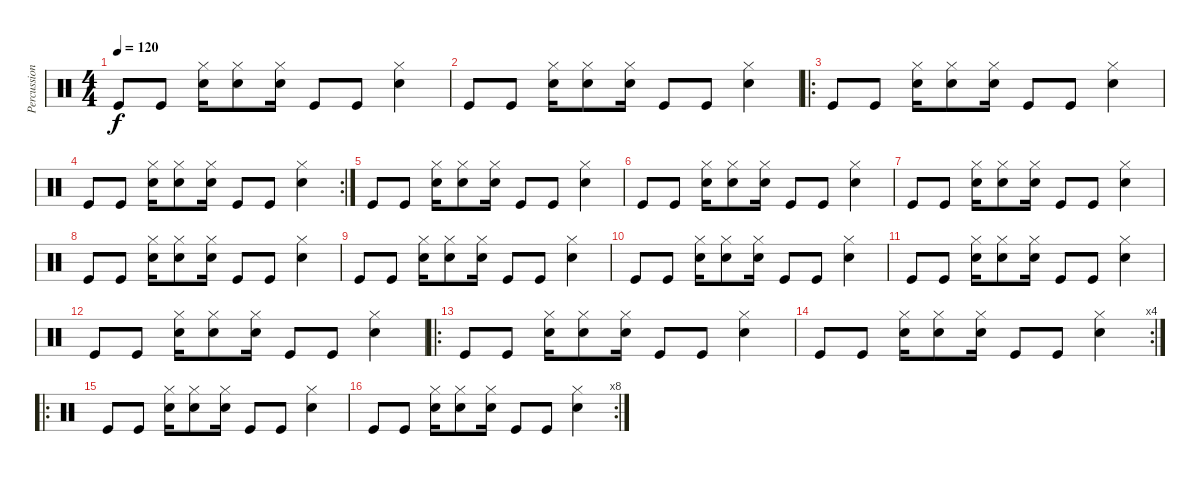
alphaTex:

\track ("Percussions" "Percussion") {instrument percussion}
\staff {score}
\articulation defaults
\ts (4 4)
\tempo 120
\clef neutral
\ks c "Kick (hit)".8{dy f} "Kick (hit)".8
("Electric Snare (hit)" "Hi-Hat (closed)").16 ("Electric Snare (hit)" "Hi-Hat (closed)").8 ("Electric Snare (hit)" "Hi-Hat (closed)").16 "Kick (hit)".8 "Kick (hit)".8 ("Electric Snare (hit)" "Hi-Hat (closed)").4 |
"Kick (hit)".8 "Kick (hit)".8 ("Electric Snare (hit)" "Hi-Hat (closed)").16 ("Electric Snare (hit)" "Hi-Hat (closed)").8 ("Electric Snare (hit)" "Hi-Hat (closed)").16 "Kick (hit)".8 "Kick (hit)".8 ("Electric Snare (hit)" "Hi-Hat (closed)").4 |
\ro "Kick (hit)".8 "Kick (hit)".8
("Electric Snare (hit)" "Hi-Hat (closed)").16 ("Electric Snare (hit)" "Hi-Hat (closed)").8 ("Electric Snare (hit)" "Hi-Hat (closed)").16 "Kick (hit)".8 "Kick (hit)".8 ("Electric Snare (hit)" "Hi-Hat (closed)").4 |
\rc 2 "Kick (hit)".8 "Kick (hit)".8
("Electric Snare (hit)" "Hi-Hat (closed)").16 ("Electric Snare (hit)" "Hi-Hat (closed)").8 ("Electric Snare (hit)" "Hi-Hat (closed)").16 "Kick (hit)".8 "Kick (hit)".8 ("Electric Snare (hit)" "Hi-Hat (closed)").4 |
"Kick (hit)".8 "Kick (hit)".8 ("Electric Snare (hit)" "Hi-Hat (closed)").16 ("Electric Snare (hit)" "Hi-Hat (closed)").8 ("Electric Snare (hit)" "Hi-Hat (closed)").16 "Kick (hit)".8 "Kick (hit)".8 ("Electric Snare (hit)" "Hi-Hat (closed)").4 |
"Kick (hit)".8 "Kick (hit)".8 ("Electric Snare (hit)" "Hi-Hat (closed)").16 ("Electric Snare (hit)" "Hi-Hat (closed)").8 ("Electric Snare (hit)" "Hi-Hat (closed)").16 "Kick (hit)".8 "Kick (hit)".8 ("Electric Snare (hit)" "Hi-Hat (closed)").4 |
"Kick (hit)".8 "Kick (hit)".8 ("Electric Snare (hit)" "Hi-Hat (closed)").16 ("Electric Snare (hit)" "Hi-Hat (closed)").8 ("Electric Snare (hit)" "Hi-Hat (closed)").16 "Kick (hit)".8 "Kick (hit)".8 ("Electric Snare (hit)" "Hi-Hat (closed)").4 |
"Kick (hit)".8 "Kick (hit)".8 ("Electric Snare (hit)" "Hi-Hat (closed)").16 ("Electric Snare (hit)" "Hi-Hat (closed)").8 ("Electric Snare (hit)" "Hi-Hat (closed)").16 "Kick (hit)".8 "Kick (hit)".8 ("Electric Snare (hit)" "Hi-Hat (closed)").4 |
"Kick (hit)".8 "Kick (hit)".8 ("Electric Snare (hit)" "Hi-Hat (closed)").16 ("Electric Snare (hit)" "Hi-Hat (closed)").8 ("Electric Snare (hit)" "Hi-Hat (closed)").16 "Kick (hit)".8 "Kick (hit)".8 ("Electric Snare (hit)" "Hi-Hat (closed)").4 |
"Kick (hit)".8 "Kick (hit)".8 ("Electric Snare (hit)" "Hi-Hat (closed)").16 ("Electric Snare (hit)" "Hi-Hat (closed)").8 ("Electric Snare (hit)" "Hi-Hat (closed)").16 "Kick (hit)".8 "Kick (hit)".8 ("Electric Snare (hit)" "Hi-Hat (closed)").4 |
"Kick (hit)".8 "Kick (hit)".8 ("Electric Snare (hit)" "Hi-Hat (closed)").16 ("Electric Snare (hit)" "Hi-Hat (closed)").8 ("Electric Snare (hit)" "Hi-Hat (closed)").16 "Kick (hit)".8 "Kick (hit)".8 ("Electric Snare (hit)" "Hi-Hat (closed)").4 |
"Kick (hit)".8 "Kick (hit)".8 ("Electric Snare (hit)" "Hi-Hat (closed)").16 ("Electric Snare (hit)" "Hi-Hat (closed)").8 ("Electric Snare (hit)" "Hi-Hat (closed)").16 "Kick (hit)".8 "Kick (hit)".8 ("Electric Snare (hit)" "Hi-Hat (closed)").4 |
\ro "Kick (hit)".8 "Kick (hit)".8
("Electric Snare (hit)" "Hi-Hat (closed)").16 ("Electric Snare (hit)" "Hi-Hat (closed)").8 ("Electric Snare (hit)" "Hi-Hat (closed)").16 "Kick (hit)".8 "Kick (hit)".8 ("Electric Snare (hit)" "Hi-Hat (closed)").4 |
\rc 4 "Kick (hit)".8 "Kick (hit)".8
("Electric Snare (hit)" "Hi-Hat (closed)").16 ("Electric Snare (hit)" "Hi-Hat (closed)").8 ("Electric Snare (hit)" "Hi-Hat (closed)").16 "Kick (hit)".8 "Kick (hit)".8 ("Electric Snare (hit)" "Hi-Hat (closed)").4 |
\ro "Kick (hit)".8 "Kick (hit)".8
("Electric Snare (hit)" "Hi-Hat (closed)").16 ("Electric Snare (hit)" "Hi-Hat (closed)").8 ("Electric Snare (hit)" "Hi-Hat (closed)").16 "Kick (hit)".8 "Kick (hit)".8 ("Electric Snare (hit)" "Hi-Hat (closed)").4 |
\rc 8 "Kick (hit)".8 "Kick (hit)".8
("Electric Snare (hit)" "Hi-Hat (closed)").16 ("Electric Snare (hit)" "Hi-Hat (closed)").8 ("Electric Snare (hit)" "Hi-Hat (closed)").16 "Kick (hit)".8 "Kick (hit)".8 ("Electric Snare (hit)" "Hi-Hat (closed)").4
